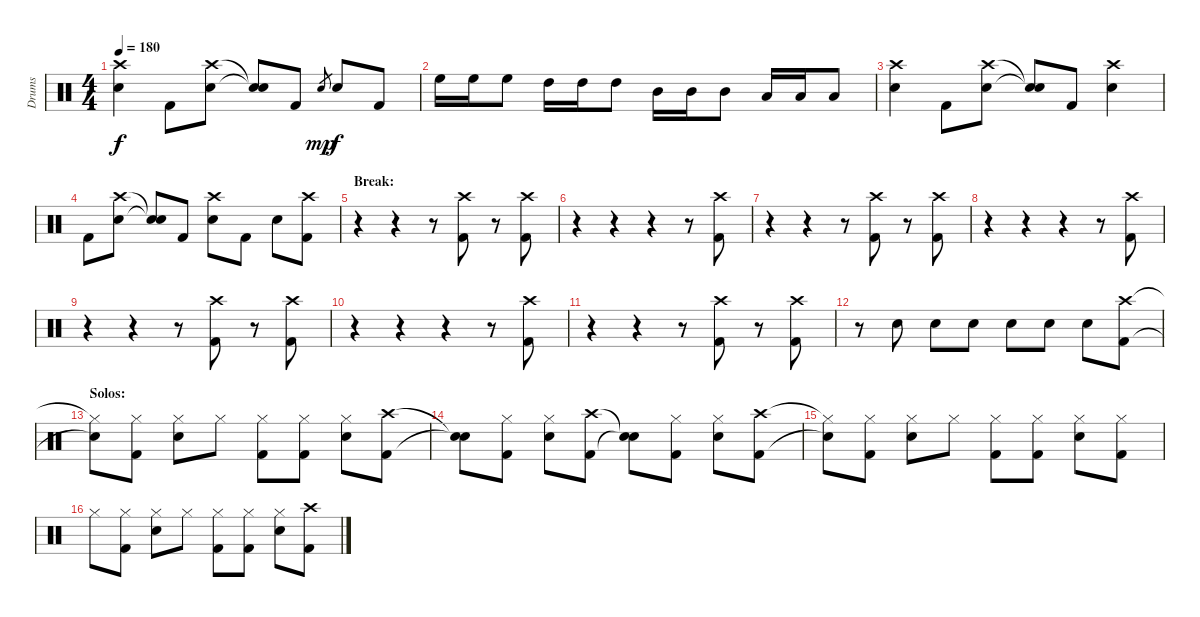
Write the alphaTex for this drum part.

\track ("Drums" "Drums") {instrument percussion}
\staff {score}
\articulation defaults
\ts (4 4)
\tempo 180
\clef neutral
\ks c
("Crash high (hit)" "Snare (hit) 2").4{dy f} "Kick (hit) 2".8 ("Crash high (hit)" "Snare (hit) 2").8 ("Snare (hit)"{t} "Snare (hit)"{t}).8 "Kick (hit) 2".8 "Snare (hit) 2".8{gr dy mp} "Snare (hit) 2".8{dy f} "Kick (hit) 2".8 |
"High Floor Tom (hit)".16 "High Floor Tom (hit)".16 "High Floor Tom (hit)".8 "High Tom (hit)".16 "High Tom (hit)".16 "High Tom (hit)".8 "Mid Tom (hit)".16 "Mid Tom (hit)".16 "Mid Tom (hit)".8 "Low Tom (hit)".16 "Low Tom (hit)".16 "Low Tom (hit)".8 |
("Crash high (hit)" "Snare (hit) 2").4 "Kick (hit) 2".8 ("Crash high (hit)" "Snare (hit) 2").8 ("Snare (hit)"{t} "Snare (hit)"{t}).8 "Kick (hit) 2".8 ("Crash high (hit)" "Snare (hit) 2").4 |
"Kick (hit) 2".8 ("Crash high (hit)" "Snare (hit) 2").8 ("Snare (hit)"{t} "Snare (hit)"{t}).8 "Kick (hit) 2".8 ("Crash high (hit)" "Snare (hit) 2").8 "Kick (hit) 2".8 "Snare (hit) 2".8 ("Crash high (hit)" "Kick (hit) 2").8 |
\section ("" "Break:")
r.4 r.4 r.8 ("Crash high (hit)" "Kick (hit) 2").8 r.8 ("Crash high (hit)" "Kick (hit) 2").8 |
r.4 r.4 r.4 r.8 ("Crash high (hit)" "Kick (hit) 2").8 |
r.4 r.4 r.8 ("Crash high (hit)" "Kick (hit) 2").8 r.8 ("Crash high (hit)" "Kick (hit) 2").8 |
r.4 r.4 r.4 r.8 ("Crash high (hit)" "Kick (hit) 2").8 |
r.4 r.4 r.8 ("Crash high (hit)" "Kick (hit) 2").8 r.8 ("Crash high (hit)" "Kick (hit) 2").8 |
r.4 r.4 r.4 r.8 ("Crash high (hit)" "Kick (hit) 2").8 |
r.4 r.4 r.8 ("Crash high (hit)" "Kick (hit) 2").8 r.8 ("Crash high (hit)" "Kick (hit) 2").8 |
r.8 "Snare (hit) 2".8 "Snare (hit) 2".8 "Snare (hit) 2".8 "Snare (hit) 2".8 "Snare (hit) 2".8 "Snare (hit) 2".8 ("Crash high (hit)" "Kick (hit) 2").8 |
\section ("" "Solos:")
("Hi-Hat (closed)"{t} "Snare (hit)"{t}).8 ("Hi-Hat (closed)" "Kick (hit) 2").8 ("Hi-Hat (closed)" "Snare (hit) 2").8 "Hi-Hat (closed)".8 ("Hi-Hat (closed)" "Kick (hit) 2").8 ("Hi-Hat (closed)" "Kick (hit) 2").8 ("Hi-Hat (closed)" "Snare (hit) 2").8 ("Crash high (hit)" "Kick (hit) 2").8 |
("Snare (hit)"{t} "Snare (hit)"{t}).8 ("Hi-Hat (closed)" "Kick (hit) 2").8 ("Hi-Hat (closed)" "Snare (hit) 2").8 ("Crash high (hit)" "Kick (hit) 2").8 ("Snare (hit)"{t} "Snare (hit)"{t}).8 ("Hi-Hat (closed)" "Kick (hit) 2").8 ("Hi-Hat (closed)" "Snare (hit) 2").8 ("Crash high (hit)" "Kick (hit) 2").8 |
("Hi-Hat (closed)"{t} "Snare (hit)"{t}).8 ("Hi-Hat (closed)" "Kick (hit) 2").8 ("Hi-Hat (closed)" "Snare (hit) 2").8 "Hi-Hat (closed)".8 ("Hi-Hat (closed)" "Kick (hit) 2").8 ("Hi-Hat (closed)" "Kick (hit) 2").8 ("Hi-Hat (closed)" "Snare (hit) 2").8 ("Hi-Hat (closed)" "Kick (hit) 2").8 |
"Hi-Hat (closed)".8 ("Hi-Hat (closed)" "Kick (hit) 2").8 ("Hi-Hat (closed)" "Snare (hit) 2").8 "Hi-Hat (closed)".8 ("Hi-Hat (closed)" "Kick (hit) 2").8 ("Hi-Hat (closed)" "Kick (hit) 2").8 ("Hi-Hat (closed)" "Snare (hit) 2").8 ("Crash high (hit)" "Kick (hit) 2").8
